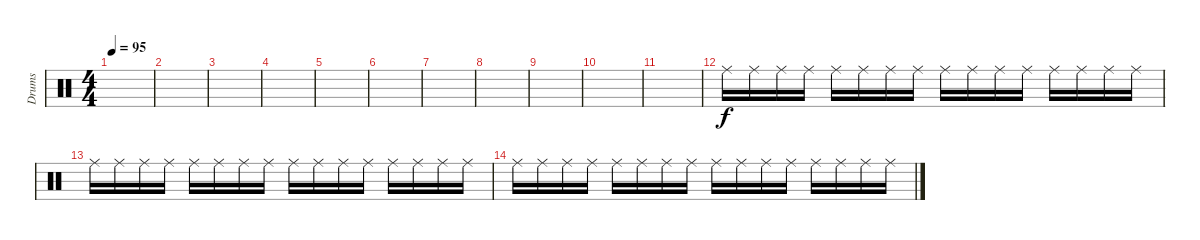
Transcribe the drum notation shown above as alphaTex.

\track ("Drums" "Drums") {instrument percussion}
\staff {score}
\articulation defaults
\ts (4 4)
\tempo 95
\clef neutral
\ks c
|
|
|
|
|
|
|
|
|
|
|
"Ride (middle)".16 "Ride (middle)".16 "Ride (middle)".16 "Ride (middle)".16 "Ride (middle)".16 "Ride (middle)".16 "Ride (middle)".16 "Ride (middle)".16 "Ride (middle)".16 "Ride (middle)".16 "Ride (middle)".16 "Ride (middle)".16 "Ride (middle)".16 "Ride (middle)".16 "Ride (middle)".16 "Ride (middle)".16 |
"Ride (middle)".16 "Ride (middle)".16 "Ride (middle)".16 "Ride (middle)".16 "Ride (middle)".16 "Ride (middle)".16 "Ride (middle)".16 "Ride (middle)".16 "Ride (middle)".16 "Ride (middle)".16 "Ride (middle)".16 "Ride (middle)".16 "Ride (middle)".16 "Ride (middle)".16 "Ride (middle)".16 "Ride (middle)".16 |
"Ride (middle)".16 "Ride (middle)".16 "Ride (middle)".16 "Ride (middle)".16 "Ride (middle)".16 "Ride (middle)".16 "Ride (middle)".16 "Ride (middle)".16 "Ride (middle)".16 "Ride (middle)".16 "Ride (middle)".16 "Ride (middle)".16 "Ride (middle)".16 "Ride (middle)".16 "Ride (middle)".16 "Ride (middle)".16
